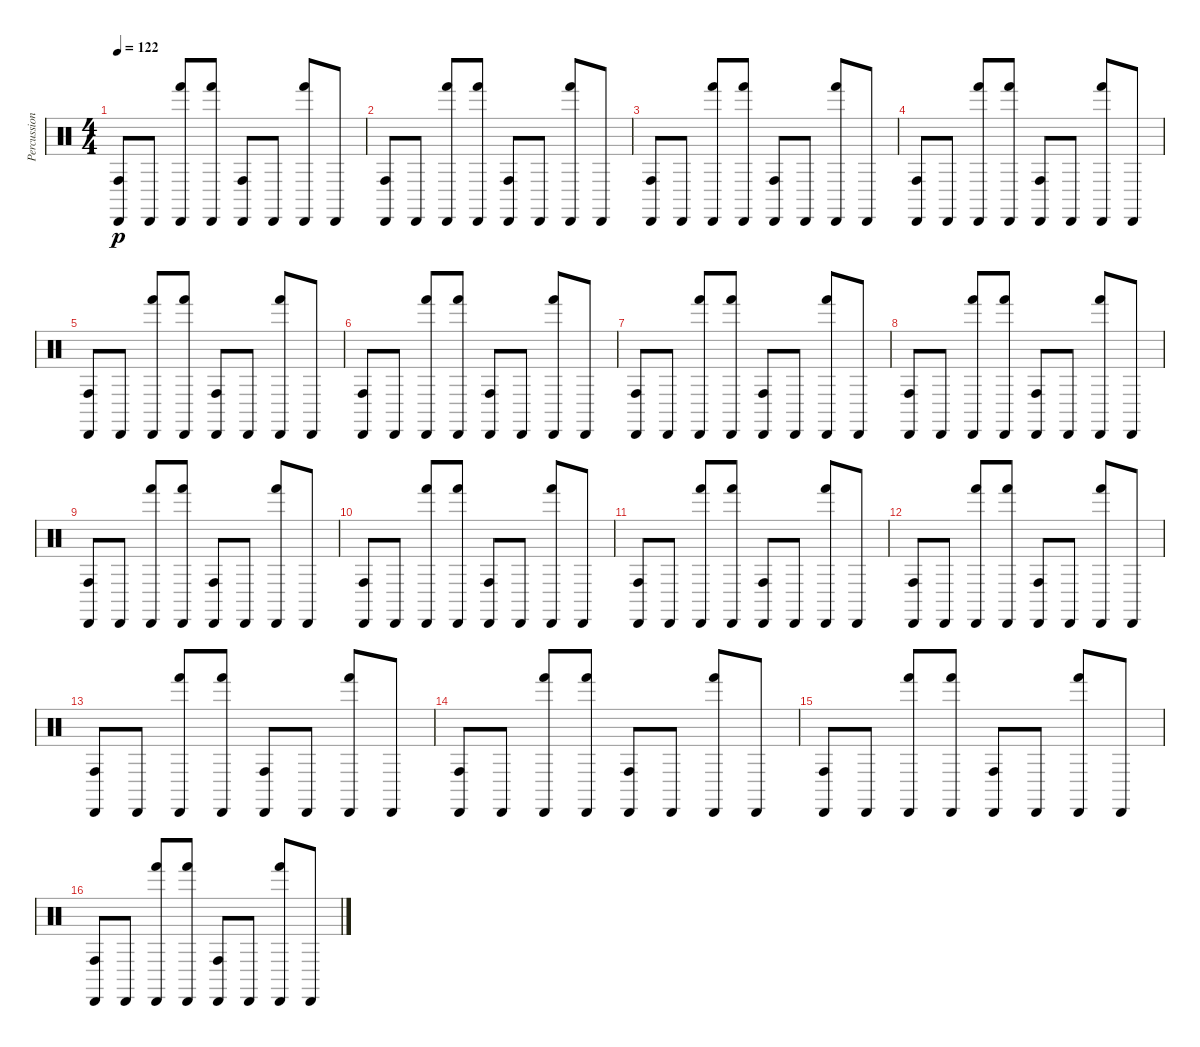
\track ("Percussion" "Percussion") {instrument percussion}
\staff {score}
\articulation defaults
\ts (4 4)
\tempo 122
\clef neutral
\ks c
("Conga high (hit)" "Cabasa (hit)").8{dy p} "Cabasa (hit)".8 ("Hand (hit)" "Cabasa (hit)").8 ("Hand (hit)" "Cabasa (hit)").8 ("Conga high (hit)" "Cabasa (hit)").8 "Cabasa (hit)".8 ("Hand (hit)" "Cabasa (hit)").8 "Cabasa (hit)".8 |
("Conga high (hit)" "Cabasa (hit)").8 "Cabasa (hit)".8 ("Hand (hit)" "Cabasa (hit)").8 ("Hand (hit)" "Cabasa (hit)").8 ("Conga high (hit)" "Cabasa (hit)").8 "Cabasa (hit)".8 ("Hand (hit)" "Cabasa (hit)").8 "Cabasa (hit)".8 |
("Conga high (hit)" "Cabasa (hit)").8 "Cabasa (hit)".8 ("Hand (hit)" "Cabasa (hit)").8 ("Hand (hit)" "Cabasa (hit)").8 ("Conga high (hit)" "Cabasa (hit)").8 "Cabasa (hit)".8 ("Hand (hit)" "Cabasa (hit)").8 "Cabasa (hit)".8 |
("Conga high (hit)" "Cabasa (hit)").8 "Cabasa (hit)".8 ("Hand (hit)" "Cabasa (hit)").8 ("Hand (hit)" "Cabasa (hit)").8 ("Conga high (hit)" "Cabasa (hit)").8 "Cabasa (hit)".8 ("Hand (hit)" "Cabasa (hit)").8 "Cabasa (hit)".8 |
("Conga high (hit)" "Cabasa (hit)").8 "Cabasa (hit)".8 ("Hand (hit)" "Cabasa (hit)").8 ("Hand (hit)" "Cabasa (hit)").8 ("Conga high (hit)" "Cabasa (hit)").8 "Cabasa (hit)".8 ("Hand (hit)" "Cabasa (hit)").8 "Cabasa (hit)".8 |
("Conga high (hit)" "Cabasa (hit)").8 "Cabasa (hit)".8 ("Hand (hit)" "Cabasa (hit)").8 ("Hand (hit)" "Cabasa (hit)").8 ("Conga high (hit)" "Cabasa (hit)").8 "Cabasa (hit)".8 ("Hand (hit)" "Cabasa (hit)").8 "Cabasa (hit)".8 |
("Conga high (hit)" "Cabasa (hit)").8 "Cabasa (hit)".8 ("Hand (hit)" "Cabasa (hit)").8 ("Hand (hit)" "Cabasa (hit)").8 ("Conga high (hit)" "Cabasa (hit)").8 "Cabasa (hit)".8 ("Hand (hit)" "Cabasa (hit)").8 "Cabasa (hit)".8 |
("Conga high (hit)" "Cabasa (hit)").8 "Cabasa (hit)".8 ("Hand (hit)" "Cabasa (hit)").8 ("Hand (hit)" "Cabasa (hit)").8 ("Conga high (hit)" "Cabasa (hit)").8 "Cabasa (hit)".8 ("Hand (hit)" "Cabasa (hit)").8 "Cabasa (hit)".8 |
("Conga high (hit)" "Cabasa (hit)").8 "Cabasa (hit)".8 ("Hand (hit)" "Cabasa (hit)").8 ("Hand (hit)" "Cabasa (hit)").8 ("Conga high (hit)" "Cabasa (hit)").8 "Cabasa (hit)".8 ("Hand (hit)" "Cabasa (hit)").8 "Cabasa (hit)".8 |
("Conga high (hit)" "Cabasa (hit)").8 "Cabasa (hit)".8 ("Hand (hit)" "Cabasa (hit)").8 ("Hand (hit)" "Cabasa (hit)").8 ("Conga high (hit)" "Cabasa (hit)").8 "Cabasa (hit)".8 ("Hand (hit)" "Cabasa (hit)").8 "Cabasa (hit)".8 |
("Conga high (hit)" "Cabasa (hit)").8 "Cabasa (hit)".8 ("Hand (hit)" "Cabasa (hit)").8 ("Hand (hit)" "Cabasa (hit)").8 ("Conga high (hit)" "Cabasa (hit)").8 "Cabasa (hit)".8 ("Hand (hit)" "Cabasa (hit)").8 "Cabasa (hit)".8 |
("Conga high (hit)" "Cabasa (hit)").8 "Cabasa (hit)".8 ("Hand (hit)" "Cabasa (hit)").8 ("Hand (hit)" "Cabasa (hit)").8 ("Conga high (hit)" "Cabasa (hit)").8 "Cabasa (hit)".8 ("Hand (hit)" "Cabasa (hit)").8 "Cabasa (hit)".8 |
("Conga high (hit)" "Cabasa (hit)").8 "Cabasa (hit)".8 ("Hand (hit)" "Cabasa (hit)").8 ("Hand (hit)" "Cabasa (hit)").8 ("Conga high (hit)" "Cabasa (hit)").8 "Cabasa (hit)".8 ("Hand (hit)" "Cabasa (hit)").8 "Cabasa (hit)".8 |
("Conga high (hit)" "Cabasa (hit)").8 "Cabasa (hit)".8 ("Hand (hit)" "Cabasa (hit)").8 ("Hand (hit)" "Cabasa (hit)").8 ("Conga high (hit)" "Cabasa (hit)").8 "Cabasa (hit)".8 ("Hand (hit)" "Cabasa (hit)").8 "Cabasa (hit)".8 |
("Conga high (hit)" "Cabasa (hit)").8 "Cabasa (hit)".8 ("Hand (hit)" "Cabasa (hit)").8 ("Hand (hit)" "Cabasa (hit)").8 ("Conga high (hit)" "Cabasa (hit)").8 "Cabasa (hit)".8 ("Hand (hit)" "Cabasa (hit)").8 "Cabasa (hit)".8 |
("Conga high (hit)" "Cabasa (hit)").8 "Cabasa (hit)".8 ("Hand (hit)" "Cabasa (hit)").8 ("Hand (hit)" "Cabasa (hit)").8 ("Conga high (hit)" "Cabasa (hit)").8 "Cabasa (hit)".8 ("Hand (hit)" "Cabasa (hit)").8 "Cabasa (hit)".8
